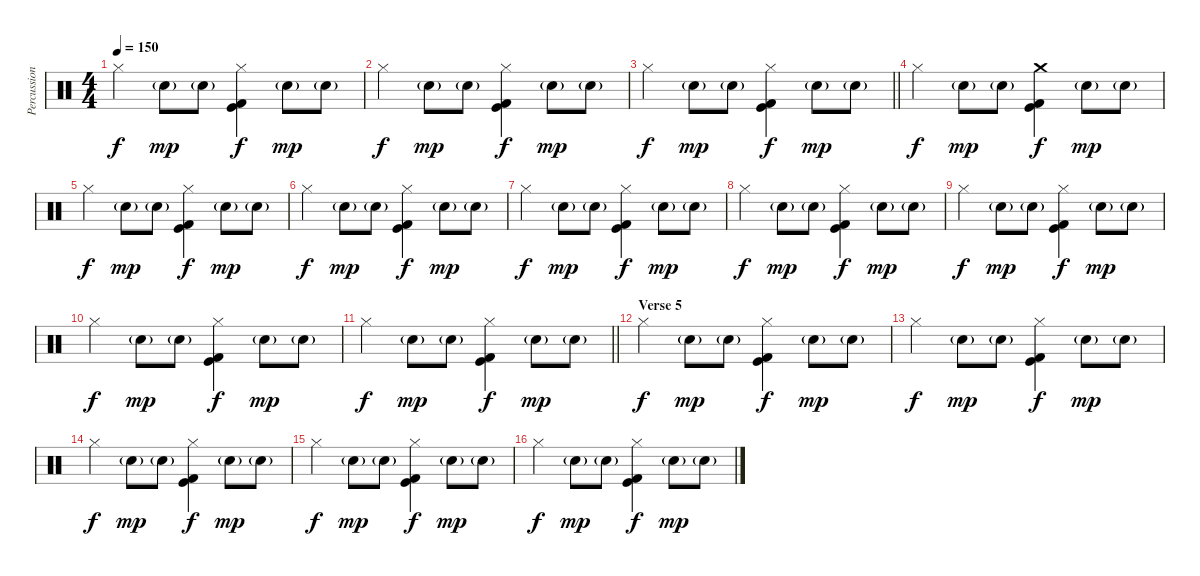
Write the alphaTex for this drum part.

\track ("Percussion" "Percussion") {instrument percussion}
\staff {score}
\articulation defaults
\ts (4 4)
\tempo 150
\clef neutral
\ks c "Hi-Hat (closed)".4{dy f} "Hand Clap (hit)"{g}.8{dy mp} "Hand Clap (hit)"{g}.8
("Hi-Hat (closed)" "Kick (hit)" "Kick (hit) 2").4{dy f} "Hand Clap (hit)"{g}.8{dy mp} "Hand Clap (hit)"{g}.8 |
"Hi-Hat (closed)".4{dy f} "Hand Clap (hit)"{g}.8{dy mp} "Hand Clap (hit)"{g}.8 ("Hi-Hat (closed)" "Kick (hit)" "Kick (hit) 2").4{dy f} "Hand Clap (hit)"{g}.8{dy mp} "Hand Clap (hit)"{g}.8 |
\barLineRight lightlight "Hi-Hat (closed)".4{dy f} "Hand Clap (hit)"{g}.8{dy mp} "Hand Clap (hit)"{g}.8
("Hi-Hat (closed)" "Kick (hit)" "Kick (hit) 2").4{dy f} "Hand Clap (hit)"{g}.8{dy mp} "Hand Clap (hit)"{g}.8 |
\section ("" "")
"Hi-Hat (closed)".4{dy f} "Hand Clap (hit)"{g}.8{dy mp} "Hand Clap (hit)"{g}.8 ("Crash medium (hit)" "Kick (hit)" "Kick (hit) 2").4{dy f} "Hand Clap (hit)"{g}.8{dy mp} "Hand Clap (hit)"{g}.8 |
"Hi-Hat (closed)".4{dy f} "Hand Clap (hit)"{g}.8{dy mp} "Hand Clap (hit)"{g}.8 ("Hi-Hat (closed)" "Kick (hit)" "Kick (hit) 2").4{dy f} "Hand Clap (hit)"{g}.8{dy mp} "Hand Clap (hit)"{g}.8 |
"Hi-Hat (closed)".4{dy f} "Hand Clap (hit)"{g}.8{dy mp} "Hand Clap (hit)"{g}.8 ("Hi-Hat (closed)" "Kick (hit)" "Kick (hit) 2").4{dy f} "Hand Clap (hit)"{g}.8{dy mp} "Hand Clap (hit)"{g}.8 |
"Hi-Hat (closed)".4{dy f} "Hand Clap (hit)"{g}.8{dy mp} "Hand Clap (hit)"{g}.8 ("Hi-Hat (closed)" "Kick (hit)" "Kick (hit) 2").4{dy f} "Hand Clap (hit)"{g}.8{dy mp} "Hand Clap (hit)"{g}.8 |
"Hi-Hat (closed)".4{dy f} "Hand Clap (hit)"{g}.8{dy mp} "Hand Clap (hit)"{g}.8 ("Hi-Hat (closed)" "Kick (hit)" "Kick (hit) 2").4{dy f} "Hand Clap (hit)"{g}.8{dy mp} "Hand Clap (hit)"{g}.8 |
"Hi-Hat (closed)".4{dy f} "Hand Clap (hit)"{g}.8{dy mp} "Hand Clap (hit)"{g}.8 ("Hi-Hat (closed)" "Kick (hit)" "Kick (hit) 2").4{dy f} "Hand Clap (hit)"{g}.8{dy mp} "Hand Clap (hit)"{g}.8 |
"Hi-Hat (closed)".4{dy f} "Hand Clap (hit)"{g}.8{dy mp} "Hand Clap (hit)"{g}.8 ("Hi-Hat (closed)" "Kick (hit)" "Kick (hit) 2").4{dy f} "Hand Clap (hit)"{g}.8{dy mp} "Hand Clap (hit)"{g}.8 |
\barLineRight lightlight "Hi-Hat (closed)".4{dy f} "Hand Clap (hit)"{g}.8{dy mp} "Hand Clap (hit)"{g}.8
("Hi-Hat (closed)" "Kick (hit)" "Kick (hit) 2").4{dy f} "Hand Clap (hit)"{g}.8{dy mp} "Hand Clap (hit)"{g}.8 |
\section ("" "Verse 5")
"Hi-Hat (closed)".4{dy f} "Hand Clap (hit)"{g}.8{dy mp} "Hand Clap (hit)"{g}.8 ("Hi-Hat (closed)" "Kick (hit)" "Kick (hit) 2").4{dy f} "Hand Clap (hit)"{g}.8{dy mp} "Hand Clap (hit)"{g}.8 |
"Hi-Hat (closed)".4{dy f} "Hand Clap (hit)"{g}.8{dy mp} "Hand Clap (hit)"{g}.8 ("Hi-Hat (closed)" "Kick (hit)" "Kick (hit) 2").4{dy f} "Hand Clap (hit)"{g}.8{dy mp} "Hand Clap (hit)"{g}.8 |
"Hi-Hat (closed)".4{dy f} "Hand Clap (hit)"{g}.8{dy mp} "Hand Clap (hit)"{g}.8 ("Hi-Hat (closed)" "Kick (hit)" "Kick (hit) 2").4{dy f} "Hand Clap (hit)"{g}.8{dy mp} "Hand Clap (hit)"{g}.8 |
"Hi-Hat (closed)".4{dy f} "Hand Clap (hit)"{g}.8{dy mp} "Hand Clap (hit)"{g}.8 ("Hi-Hat (closed)" "Kick (hit)" "Kick (hit) 2").4{dy f} "Hand Clap (hit)"{g}.8{dy mp} "Hand Clap (hit)"{g}.8 |
"Hi-Hat (closed)".4{dy f} "Hand Clap (hit)"{g}.8{dy mp} "Hand Clap (hit)"{g}.8 ("Hi-Hat (closed)" "Kick (hit)" "Kick (hit) 2").4{dy f} "Hand Clap (hit)"{g}.8{dy mp} "Hand Clap (hit)"{g}.8
